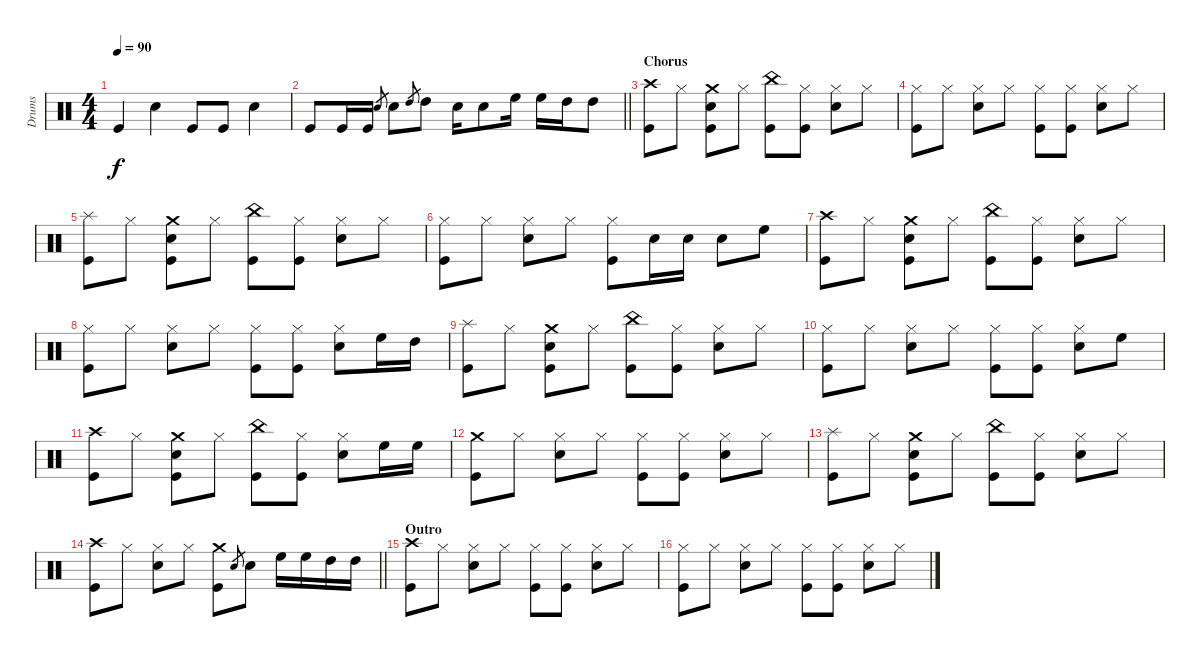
\track ("Drums" "Drums") {instrument percussion}
\staff {score}
\articulation defaults
\ts (4 4)
\tempo 90
\clef neutral
\ks c "Kick (hit)".4{dy f} "Snare (hit) 2".4 "Kick (hit)".8 "Kick (hit)".8 "Snare (hit) 2".4
|
\barLineRight lightlight "Kick (hit)".8 "Kick (hit)".16 "Kick (hit)".16 "Snare (hit) 2".8{gr} "Snare (hit) 2".8 "High Tom (hit)".8{gr} "High Tom (hit)".8 "Snare (hit) 2".16 "Snare (hit) 2".8 "High Floor Tom (hit)".16 "High Floor Tom (hit)".16 "High Tom (hit)".16 "High Tom (hit)".8
|
\section ("" "Chorus")
("Crash high (hit)" "Kick (hit)").8 "Hi-Hat (closed)".8 ("Kick (hit)" "Snare (hit) 2" "Crash medium (hit)").8 "Hi-Hat (closed)".8 ("Kick (hit)" "China (hit)").8 ("Kick (hit)" "Hi-Hat (closed)").8 ("Snare (hit) 2" "Hi-Hat (closed)").8 "Hi-Hat (closed)".8 |
("Kick (hit)" "Hi-Hat (closed)").8 "Hi-Hat (closed)".8 ("Snare (hit) 2" "Hi-Hat (closed)").8 "Hi-Hat (closed)".8 ("Kick (hit)" "Hi-Hat (closed)").8 ("Kick (hit)" "Hi-Hat (closed)").8 ("Snare (hit) 2" "Hi-Hat (closed)").8 "Hi-Hat (closed)".8 |
("Splash (hit)" "Kick (hit)").8 "Hi-Hat (closed)".8 ("Kick (hit)" "Snare (hit) 2" "Crash medium (hit)").8 "Hi-Hat (closed)".8 ("Kick (hit)" "China (hit)").8 ("Kick (hit)" "Hi-Hat (closed)").8 ("Snare (hit) 2" "Hi-Hat (closed)").8 "Hi-Hat (closed)".8 |
("Kick (hit)" "Hi-Hat (closed)").8 "Hi-Hat (closed)".8 ("Snare (hit) 2" "Hi-Hat (closed)").8 "Hi-Hat (closed)".8 ("Kick (hit)" "Hi-Hat (closed)").8 "Snare (hit) 2".16 "Snare (hit) 2".16 "Snare (hit) 2".8 "High Floor Tom (hit)".8 |
("Crash high (hit)" "Kick (hit)").8 "Hi-Hat (closed)".8 ("Kick (hit)" "Snare (hit) 2" "Crash medium (hit)").8 "Hi-Hat (closed)".8 ("Kick (hit)" "China (hit)").8 ("Kick (hit)" "Hi-Hat (closed)").8 ("Snare (hit) 2" "Hi-Hat (closed)").8 "Hi-Hat (closed)".8 |
("Kick (hit)" "Hi-Hat (closed)").8 "Hi-Hat (closed)".8 ("Snare (hit) 2" "Hi-Hat (closed)").8 "Hi-Hat (closed)".8 ("Kick (hit)" "Hi-Hat (closed)").8 ("Kick (hit)" "Hi-Hat (closed)").8 ("Snare (hit) 2" "Hi-Hat (closed)").8 "High Floor Tom (hit)".16 "High Tom (hit)".16 |
("Splash (hit)" "Kick (hit)").8 "Hi-Hat (closed)".8 ("Kick (hit)" "Snare (hit) 2" "Crash medium (hit)").8 "Hi-Hat (closed)".8 ("Kick (hit)" "China (hit)").8 ("Kick (hit)" "Hi-Hat (closed)").8 ("Snare (hit) 2" "Hi-Hat (closed)").8 "Hi-Hat (closed)".8 |
("Kick (hit)" "Hi-Hat (closed)").8 "Hi-Hat (closed)".8 ("Snare (hit) 2" "Hi-Hat (closed)").8 "Hi-Hat (closed)".8 ("Kick (hit)" "Hi-Hat (closed)").8 ("Kick (hit)" "Hi-Hat (closed)").8 ("Snare (hit) 2" "Hi-Hat (closed)").8 "High Floor Tom (hit)".8 |
("Crash high (hit)" "Kick (hit)").8 "Hi-Hat (closed)".8 ("Kick (hit)" "Snare (hit) 2" "Crash medium (hit)").8 "Hi-Hat (closed)".8 ("Kick (hit)" "China (hit)").8 ("Kick (hit)" "Hi-Hat (closed)").8 ("Snare (hit) 2" "Hi-Hat (closed)").8 "High Floor Tom (hit)".16 "High Floor Tom (hit)".16 |
("Kick (hit)" "Crash medium (hit)").8 "Hi-Hat (closed)".8 ("Snare (hit) 2" "Hi-Hat (closed)").8 "Hi-Hat (closed)".8 ("Kick (hit)" "Hi-Hat (closed)").8 ("Kick (hit)" "Hi-Hat (closed)").8 ("Snare (hit) 2" "Hi-Hat (closed)").8 "Hi-Hat (closed)".8 |
("Splash (hit)" "Kick (hit)").8 "Hi-Hat (closed)".8 ("Kick (hit)" "Snare (hit) 2" "Crash medium (hit)").8 "Hi-Hat (closed)".8 ("Kick (hit)" "China (hit)").8 ("Kick (hit)" "Hi-Hat (closed)").8 ("Snare (hit) 2" "Hi-Hat (closed)").8 "Hi-Hat (closed)".8 |
\barLineRight lightlight
("Kick (hit)" "Crash high (hit)").8 "Hi-Hat (closed)".8 ("Snare (hit) 2" "Hi-Hat (closed)").8 "Hi-Hat (closed)".8 ("Kick (hit)" "Crash medium (hit)").8 "Snare (hit) 2".8{gr} "Snare (hit) 2".8 "High Floor Tom (hit)".16 "High Floor Tom (hit)".16 "High Tom (hit)".16 "High Tom (hit)".16 |
\section ("" "Outro")
("Kick (hit)" "Crash high (hit)").8 "Hi-Hat (closed)".8 ("Snare (hit) 2" "Hi-Hat (closed)").8 "Hi-Hat (closed)".8 ("Kick (hit)" "Hi-Hat (closed)").8 ("Kick (hit)" "Hi-Hat (closed)").8 ("Snare (hit) 2" "Hi-Hat (closed)").8 "Hi-Hat (closed)".8 |
("Kick (hit)" "Hi-Hat (closed)").8 "Hi-Hat (closed)".8 ("Snare (hit) 2" "Hi-Hat (closed)").8 "Hi-Hat (closed)".8 ("Kick (hit)" "Hi-Hat (closed)").8 ("Kick (hit)" "Hi-Hat (closed)").8 ("Snare (hit) 2" "Hi-Hat (closed)").8 "Hi-Hat (closed)".8
